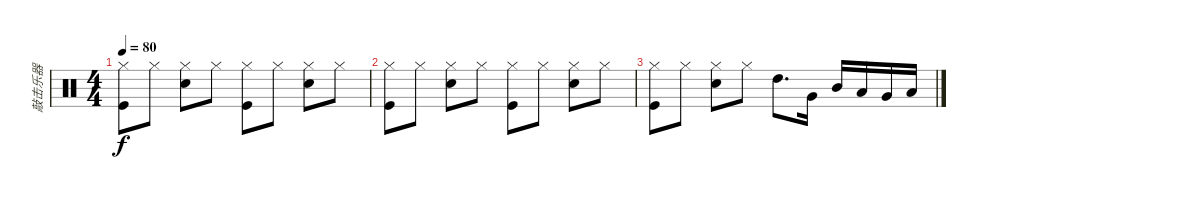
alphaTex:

\track ("敲击乐器" "敲击乐器") {instrument percussion}
\staff {score}
\articulation defaults
\ts (4 4)
\tempo 80
\clef neutral
\ks c
("Hi-Hat (closed)" "Kick (hit)").8{dy f} "Hi-Hat (closed)".8 ("Hi-Hat (closed)" "Snare (hit) 2").8 "Hi-Hat (closed)".8 ("Hi-Hat (closed)" "Kick (hit)").8 "Hi-Hat (closed)".8 ("Hi-Hat (closed)" "Snare (hit) 2").8 "Hi-Hat (closed)".8 |
("Hi-Hat (closed)" "Kick (hit)").8 "Hi-Hat (closed)".8 ("Hi-Hat (closed)" "Snare (hit) 2").8 "Hi-Hat (closed)".8 ("Hi-Hat (closed)" "Kick (hit)").8 "Hi-Hat (closed)".8 ("Hi-Hat (closed)" "Snare (hit) 2").8 "Hi-Hat (closed)".8 |
("Hi-Hat (closed)" "Kick (hit)").8 "Hi-Hat (closed)".8 ("Snare (hit) 2" "Hi-Hat (closed)").8 "Hi-Hat (closed)".8 "High Tom (hit)".8{d} "Very Low Tom (hit)".16 "Mid Tom (hit)".16 "Low Tom (hit)".16 "Very Low Tom (hit)".16 "Low Floor Tom (hit)".16
